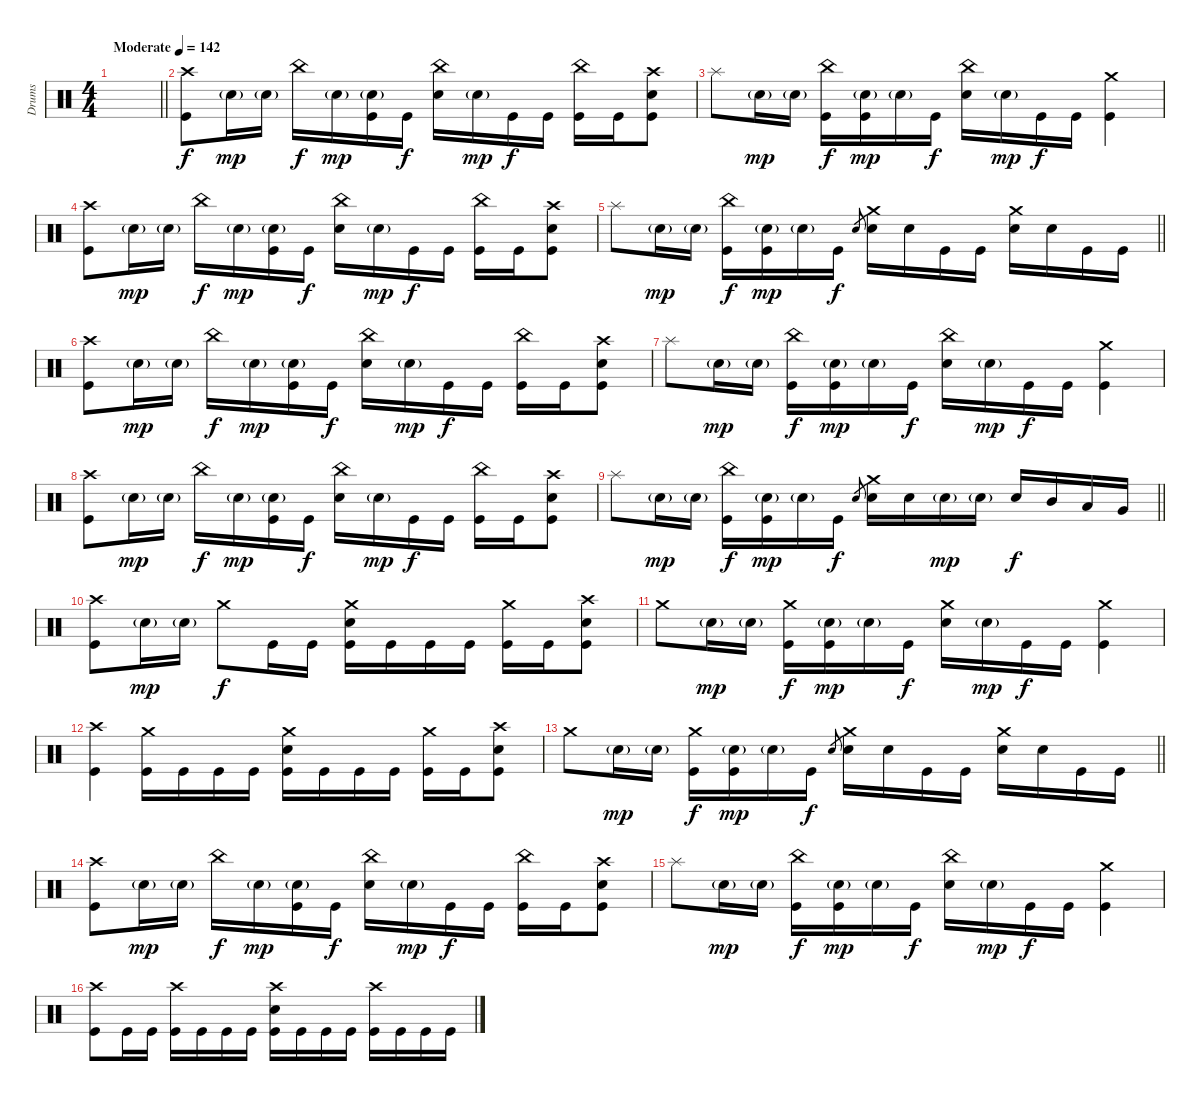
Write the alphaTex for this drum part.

\track ("Drums" "Drums") {instrument percussion}
\staff
\articulation defaults
\ts (4 4)
\tempo (142 "Moderate")
\clef neutral
\barLineRight lightlight
\ks c
|
("Crash high (hit)" "Kick (hit)").8 "Electric Snare (hit)"{g}.16{dy mp} "Electric Snare (hit)"{g}.16 "China (hit)".16{dy f} "Electric Snare (hit)"{g}.16{dy mp} ("Electric Snare (hit)"{g} "Kick (hit)").16 "Kick (hit)".16{dy f} ("China (hit)" "Electric Snare (hit)").16 "Electric Snare (hit)"{g}.16{dy mp} "Kick (hit)".16{dy f} "Kick (hit)".16 ("China (hit)" "Kick (hit)").16 "Kick (hit)".16 ("Crash high (hit)" "Electric Snare (hit)" "Kick (hit)").8 |
"Splash (hit)".8 "Electric Snare (hit)"{g}.16{dy mp} "Electric Snare (hit)"{g}.16 ("China (hit)" "Kick (hit)").16{dy f} ("Electric Snare (hit)"{g} "Kick (hit)").16{dy mp} "Electric Snare (hit)"{g}.16 "Kick (hit)".16{dy f} ("China (hit)" "Electric Snare (hit)").16 "Electric Snare (hit)"{g}.16{dy mp} "Kick (hit)".16{dy f} "Kick (hit)".16 ("Crash medium (hit)" "Kick (hit)").4 |
("Crash high (hit)" "Kick (hit)").8 "Electric Snare (hit)"{g}.16{dy mp} "Electric Snare (hit)"{g}.16 "China (hit)".16{dy f} "Electric Snare (hit)"{g}.16{dy mp} ("Electric Snare (hit)"{g} "Kick (hit)").16 "Kick (hit)".16{dy f} ("China (hit)" "Electric Snare (hit)").16 "Electric Snare (hit)"{g}.16{dy mp} "Kick (hit)".16{dy f} "Kick (hit)".16 ("China (hit)" "Kick (hit)").16 "Kick (hit)".16 ("Crash high (hit)" "Electric Snare (hit)" "Kick (hit)").8 |
\barLineRight lightlight "Splash (hit)".8 "Electric Snare (hit)"{g}.16{dy mp} "Electric Snare (hit)"{g}.16
("China (hit)" "Kick (hit)").16{dy f} ("Electric Snare (hit)"{g} "Kick (hit)").16{dy mp} "Electric Snare (hit)"{g}.16 "Kick (hit)".16{dy f} "Electric Snare (hit)".8{gr} ("Crash medium (hit)" "Electric Snare (hit)").16 "Electric Snare (hit)".16 "Kick (hit)".16 "Kick (hit)".16 ("Crash medium (hit)" "Electric Snare (hit)").16 "Electric Snare (hit)".16 "Kick (hit)".16 "Kick (hit)".16 |
("Crash high (hit)" "Kick (hit)").8 "Electric Snare (hit)"{g}.16{dy mp} "Electric Snare (hit)"{g}.16 "China (hit)".16{dy f} "Electric Snare (hit)"{g}.16{dy mp} ("Electric Snare (hit)"{g} "Kick (hit)").16 "Kick (hit)".16{dy f} ("China (hit)" "Electric Snare (hit)").16 "Electric Snare (hit)"{g}.16{dy mp} "Kick (hit)".16{dy f} "Kick (hit)".16 ("China (hit)" "Kick (hit)").16 "Kick (hit)".16 ("Crash high (hit)" "Electric Snare (hit)" "Kick (hit)").8 |
"Splash (hit)".8 "Electric Snare (hit)"{g}.16{dy mp} "Electric Snare (hit)"{g}.16 ("China (hit)" "Kick (hit)").16{dy f} ("Electric Snare (hit)"{g} "Kick (hit)").16{dy mp} "Electric Snare (hit)"{g}.16 "Kick (hit)".16{dy f} ("China (hit)" "Electric Snare (hit)").16 "Electric Snare (hit)"{g}.16{dy mp} "Kick (hit)".16{dy f} "Kick (hit)".16 ("Crash medium (hit)" "Kick (hit)").4 |
("Crash high (hit)" "Kick (hit)").8 "Electric Snare (hit)"{g}.16{dy mp} "Electric Snare (hit)"{g}.16 "China (hit)".16{dy f} "Electric Snare (hit)"{g}.16{dy mp} ("Electric Snare (hit)"{g} "Kick (hit)").16 "Kick (hit)".16{dy f} ("China (hit)" "Electric Snare (hit)").16 "Electric Snare (hit)"{g}.16{dy mp} "Kick (hit)".16{dy f} "Kick (hit)".16 ("China (hit)" "Kick (hit)").16 "Kick (hit)".16 ("Crash high (hit)" "Electric Snare (hit)" "Kick (hit)").8 |
\barLineRight lightlight "Splash (hit)".8 "Electric Snare (hit)"{g}.16{dy mp} "Electric Snare (hit)"{g}.16
("China (hit)" "Kick (hit)").16{dy f} ("Electric Snare (hit)"{g} "Kick (hit)").16{dy mp} "Electric Snare (hit)"{g}.16 "Kick (hit)".16{dy f} "Electric Snare (hit)".8{gr} ("Crash medium (hit)" "Electric Snare (hit)").16 "Electric Snare (hit)".16 "Electric Snare (hit)"{g}.16{dy mp} "Electric Snare (hit)"{g}.16 "Electric Snare (hit)".16{dy f} "Mid Tom (hit)".16 "Low Tom (hit)".16 "Very Low Tom (hit)".16 |
("Crash high (hit)" "Kick (hit)").8 "Electric Snare (hit)"{g}.16{dy mp} "Electric Snare (hit)"{g}.16 "Crash medium (hit)".8{dy f} "Kick (hit)".16 "Kick (hit)".16 ("Crash medium (hit)" "Electric Snare (hit)" "Kick (hit)").16 "Kick (hit)".16 "Kick (hit)".16 "Kick (hit)".16 ("Crash medium (hit)" "Kick (hit)").16 "Kick (hit)".16 ("Crash high (hit)" "Electric Snare (hit)" "Kick (hit)").8 |
"Crash medium (hit)".8 "Electric Snare (hit)"{g}.16{dy mp} "Electric Snare (hit)"{g}.16 ("Crash medium (hit)" "Kick (hit)").16{dy f} ("Electric Snare (hit)"{g} "Kick (hit)").16{dy mp} "Electric Snare (hit)"{g}.16 "Kick (hit)".16{dy f} ("Crash medium (hit)" "Electric Snare (hit)").16 "Electric Snare (hit)"{g}.16{dy mp} "Kick (hit)".16{dy f} "Kick (hit)".16 ("Crash medium (hit)" "Kick (hit)").4 |
("Crash high (hit)" "Kick (hit)").4 ("Crash medium (hit)" "Kick (hit)").16 "Kick (hit)".16 "Kick (hit)".16 "Kick (hit)".16 ("Crash medium (hit)" "Electric Snare (hit)" "Kick (hit)").16 "Kick (hit)".16 "Kick (hit)".16 "Kick (hit)".16 ("Crash medium (hit)" "Kick (hit)").16 "Kick (hit)".16 ("Crash high (hit)" "Electric Snare (hit)" "Kick (hit)").8 |
\barLineRight lightlight "Crash medium (hit)".8 "Electric Snare (hit)"{g}.16{dy mp} "Electric Snare (hit)"{g}.16
("Crash medium (hit)" "Kick (hit)").16{dy f} ("Electric Snare (hit)"{g} "Kick (hit)").16{dy mp} "Electric Snare (hit)"{g}.16 "Kick (hit)".16{dy f} "Electric Snare (hit)".8{gr} ("Crash medium (hit)" "Electric Snare (hit)").16 "Electric Snare (hit)".16 "Kick (hit)".16 "Kick (hit)".16 ("Crash medium (hit)" "Electric Snare (hit)").16 "Electric Snare (hit)".16 "Kick (hit)".16 "Kick (hit)".16 |
("Crash high (hit)" "Kick (hit)").8 "Electric Snare (hit)"{g}.16{dy mp} "Electric Snare (hit)"{g}.16 "China (hit)".16{dy f} "Electric Snare (hit)"{g}.16{dy mp} ("Electric Snare (hit)"{g} "Kick (hit)").16 "Kick (hit)".16{dy f} ("China (hit)" "Electric Snare (hit)").16 "Electric Snare (hit)"{g}.16{dy mp} "Kick (hit)".16{dy f} "Kick (hit)".16 ("China (hit)" "Kick (hit)").16 "Kick (hit)".16 ("Crash high (hit)" "Electric Snare (hit)" "Kick (hit)").8 |
"Splash (hit)".8 "Electric Snare (hit)"{g}.16{dy mp} "Electric Snare (hit)"{g}.16 ("China (hit)" "Kick (hit)").16{dy f} ("Electric Snare (hit)"{g} "Kick (hit)").16{dy mp} "Electric Snare (hit)"{g}.16 "Kick (hit)".16{dy f} ("China (hit)" "Electric Snare (hit)").16 "Electric Snare (hit)"{g}.16{dy mp} "Kick (hit)".16{dy f} "Kick (hit)".16 ("Crash medium (hit)" "Kick (hit)").4 |
("Crash high (hit)" "Kick (hit)").8 "Kick (hit)".16 "Kick (hit)".16 ("Crash high (hit)" "Kick (hit)").16 "Kick (hit)".16 "Kick (hit)".16 "Kick (hit)".16 ("Crash high (hit)" "Electric Snare (hit)" "Kick (hit)").16 "Kick (hit)".16 "Kick (hit)".16 "Kick (hit)".16 ("Crash high (hit)" "Kick (hit)").16 "Kick (hit)".16 "Kick (hit)".16 "Kick (hit)".16
